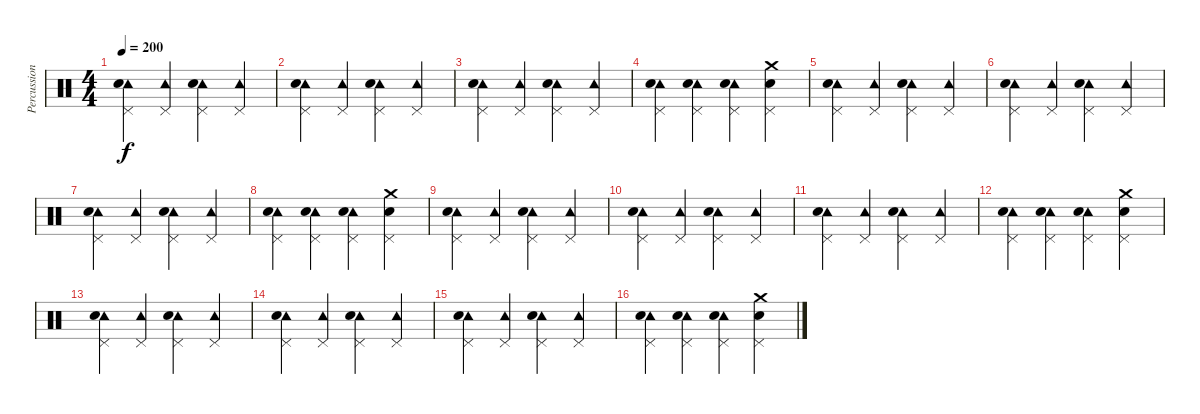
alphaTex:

\track ("Percussion" "Percussion") {instrument percussion}
\staff {score}
\articulation defaults
\ts (4 4)
\tempo 200
\clef neutral
\ks c
("Tambourine (hit)" "Pedal Hi-Hat (hit)" "Electric Snare (hit)").4{dy f} ("Tambourine (hit)" "Pedal Hi-Hat (hit)").4 ("Tambourine (hit)" "Pedal Hi-Hat (hit)" "Electric Snare (hit)").4 ("Tambourine (hit)" "Pedal Hi-Hat (hit)").4 |
("Tambourine (hit)" "Pedal Hi-Hat (hit)" "Electric Snare (hit)").4 ("Tambourine (hit)" "Pedal Hi-Hat (hit)").4 ("Tambourine (hit)" "Pedal Hi-Hat (hit)" "Electric Snare (hit)").4 ("Tambourine (hit)" "Pedal Hi-Hat (hit)").4 |
("Tambourine (hit)" "Pedal Hi-Hat (hit)" "Electric Snare (hit)").4 ("Tambourine (hit)" "Pedal Hi-Hat (hit)").4 ("Tambourine (hit)" "Pedal Hi-Hat (hit)" "Electric Snare (hit)").4 ("Tambourine (hit)" "Pedal Hi-Hat (hit)").4 |
("Tambourine (hit)" "Pedal Hi-Hat (hit)" "Electric Snare (hit)").4 ("Tambourine (hit)" "Pedal Hi-Hat (hit)" "Electric Snare (hit)").4 ("Tambourine (hit)" "Pedal Hi-Hat (hit)" "Electric Snare (hit)").4 ("Crash medium (hit)" "Pedal Hi-Hat (hit)" "Electric Snare (hit)").4 |
("Tambourine (hit)" "Pedal Hi-Hat (hit)" "Electric Snare (hit)").4 ("Tambourine (hit)" "Pedal Hi-Hat (hit)").4 ("Tambourine (hit)" "Pedal Hi-Hat (hit)" "Electric Snare (hit)").4 ("Tambourine (hit)" "Pedal Hi-Hat (hit)").4 |
("Tambourine (hit)" "Pedal Hi-Hat (hit)" "Electric Snare (hit)").4 ("Tambourine (hit)" "Pedal Hi-Hat (hit)").4 ("Tambourine (hit)" "Pedal Hi-Hat (hit)" "Electric Snare (hit)").4 ("Tambourine (hit)" "Pedal Hi-Hat (hit)").4 |
("Tambourine (hit)" "Pedal Hi-Hat (hit)" "Electric Snare (hit)").4 ("Tambourine (hit)" "Pedal Hi-Hat (hit)").4 ("Tambourine (hit)" "Pedal Hi-Hat (hit)" "Electric Snare (hit)").4 ("Tambourine (hit)" "Pedal Hi-Hat (hit)").4 |
("Tambourine (hit)" "Pedal Hi-Hat (hit)" "Electric Snare (hit)").4 ("Tambourine (hit)" "Pedal Hi-Hat (hit)" "Electric Snare (hit)").4 ("Tambourine (hit)" "Pedal Hi-Hat (hit)" "Electric Snare (hit)").4 ("Crash medium (hit)" "Pedal Hi-Hat (hit)" "Electric Snare (hit)").4 |
("Tambourine (hit)" "Pedal Hi-Hat (hit)" "Electric Snare (hit)").4 ("Tambourine (hit)" "Pedal Hi-Hat (hit)").4 ("Tambourine (hit)" "Pedal Hi-Hat (hit)" "Electric Snare (hit)").4 ("Tambourine (hit)" "Pedal Hi-Hat (hit)").4 |
("Tambourine (hit)" "Pedal Hi-Hat (hit)" "Electric Snare (hit)").4 ("Tambourine (hit)" "Pedal Hi-Hat (hit)").4 ("Tambourine (hit)" "Pedal Hi-Hat (hit)" "Electric Snare (hit)").4 ("Tambourine (hit)" "Pedal Hi-Hat (hit)").4 |
("Tambourine (hit)" "Pedal Hi-Hat (hit)" "Electric Snare (hit)").4 ("Tambourine (hit)" "Pedal Hi-Hat (hit)").4 ("Tambourine (hit)" "Pedal Hi-Hat (hit)" "Electric Snare (hit)").4 ("Tambourine (hit)" "Pedal Hi-Hat (hit)").4 |
("Tambourine (hit)" "Pedal Hi-Hat (hit)" "Electric Snare (hit)").4 ("Tambourine (hit)" "Pedal Hi-Hat (hit)" "Electric Snare (hit)").4 ("Tambourine (hit)" "Pedal Hi-Hat (hit)" "Electric Snare (hit)").4 ("Crash medium (hit)" "Pedal Hi-Hat (hit)" "Electric Snare (hit)").4 |
("Tambourine (hit)" "Pedal Hi-Hat (hit)" "Electric Snare (hit)").4 ("Tambourine (hit)" "Pedal Hi-Hat (hit)").4 ("Tambourine (hit)" "Pedal Hi-Hat (hit)" "Electric Snare (hit)").4 ("Tambourine (hit)" "Pedal Hi-Hat (hit)").4 |
("Tambourine (hit)" "Pedal Hi-Hat (hit)" "Electric Snare (hit)").4 ("Tambourine (hit)" "Pedal Hi-Hat (hit)").4 ("Tambourine (hit)" "Pedal Hi-Hat (hit)" "Electric Snare (hit)").4 ("Tambourine (hit)" "Pedal Hi-Hat (hit)").4 |
("Tambourine (hit)" "Pedal Hi-Hat (hit)" "Electric Snare (hit)").4 ("Tambourine (hit)" "Pedal Hi-Hat (hit)").4 ("Tambourine (hit)" "Pedal Hi-Hat (hit)" "Electric Snare (hit)").4 ("Tambourine (hit)" "Pedal Hi-Hat (hit)").4 |
("Tambourine (hit)" "Pedal Hi-Hat (hit)" "Electric Snare (hit)").4 ("Tambourine (hit)" "Pedal Hi-Hat (hit)" "Electric Snare (hit)").4 ("Tambourine (hit)" "Pedal Hi-Hat (hit)" "Electric Snare (hit)").4 ("Crash medium (hit)" "Pedal Hi-Hat (hit)" "Electric Snare (hit)").4
